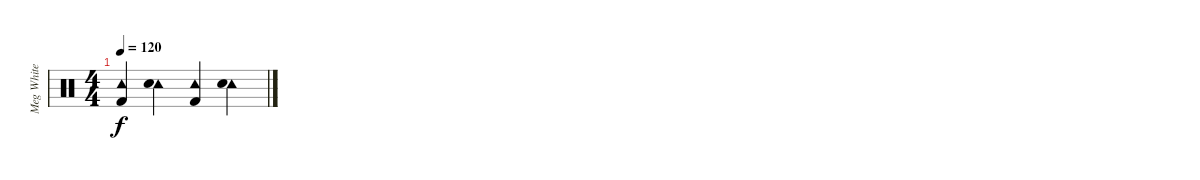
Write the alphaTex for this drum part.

\track ("Meg White" "Meg White") {instrument percussion}
\staff {score}
\articulation defaults
\ts (4 4)
\tempo 120
\clef neutral
\ks c
("Tambourine (hit)" "Kick (hit) 2").4{dy f} ("Tambourine (hit)" "Electric Snare (hit)").4 ("Tambourine (hit)" "Kick (hit) 2").4 ("Tambourine (hit)" "Electric Snare (hit)").4
